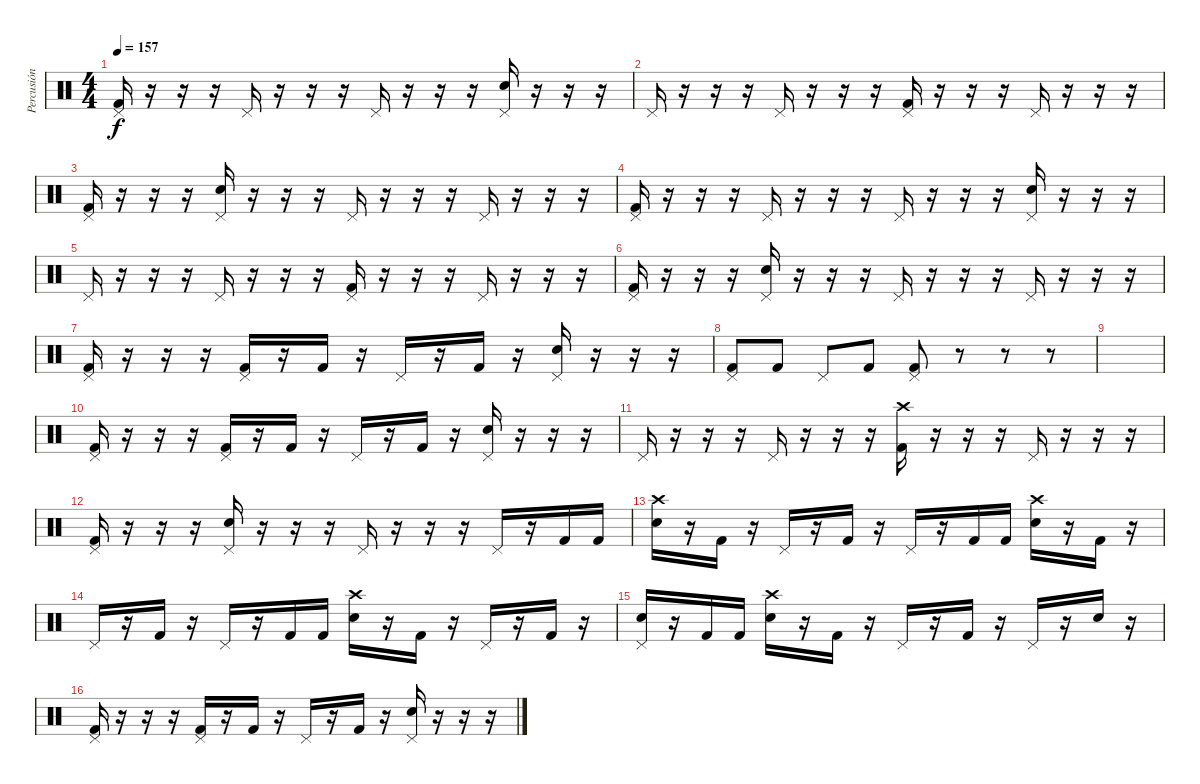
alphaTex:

\track ("Percusión" "Percusión") {instrument percussion}
\staff {score}
\articulation defaults
\ts (4 4)
\tempo 157
\clef neutral
\ks c
("Pedal Hi-Hat (hit)" "Kick (hit) 2").16{dy f} r.16 r.16 r.16 "Pedal Hi-Hat (hit)".16 r.16 r.16 r.16 "Pedal Hi-Hat (hit)".16 r.16 r.16 r.16 ("Pedal Hi-Hat (hit)" "Electric Snare (hit)").16 r.16 r.16 r.16 |
"Pedal Hi-Hat (hit)".16 r.16 r.16 r.16 "Pedal Hi-Hat (hit)".16 r.16 r.16 r.16 ("Pedal Hi-Hat (hit)" "Kick (hit) 2").16 r.16 r.16 r.16 "Pedal Hi-Hat (hit)".16 r.16 r.16 r.16 |
("Pedal Hi-Hat (hit)" "Kick (hit) 2").16 r.16 r.16 r.16 ("Pedal Hi-Hat (hit)" "Electric Snare (hit)").16 r.16 r.16 r.16 "Pedal Hi-Hat (hit)".16 r.16 r.16 r.16 "Pedal Hi-Hat (hit)".16 r.16 r.16 r.16 |
("Pedal Hi-Hat (hit)" "Kick (hit) 2").16 r.16 r.16 r.16 "Pedal Hi-Hat (hit)".16 r.16 r.16 r.16 "Pedal Hi-Hat (hit)".16 r.16 r.16 r.16 ("Pedal Hi-Hat (hit)" "Electric Snare (hit)").16 r.16 r.16 r.16 |
"Pedal Hi-Hat (hit)".16 r.16 r.16 r.16 "Pedal Hi-Hat (hit)".16 r.16 r.16 r.16 ("Pedal Hi-Hat (hit)" "Kick (hit) 2").16 r.16 r.16 r.16 "Pedal Hi-Hat (hit)".16 r.16 r.16 r.16 |
("Pedal Hi-Hat (hit)" "Kick (hit) 2").16 r.16 r.16 r.16 ("Pedal Hi-Hat (hit)" "Electric Snare (hit)").16 r.16 r.16 r.16 "Pedal Hi-Hat (hit)".16 r.16 r.16 r.16 "Pedal Hi-Hat (hit)".16 r.16 r.16 r.16 |
("Pedal Hi-Hat (hit)" "Kick (hit) 2").16 r.16 r.16 r.16 ("Pedal Hi-Hat (hit)" "Kick (hit) 2").16 r.16 "Kick (hit) 2".16 r.16 "Pedal Hi-Hat (hit)".16 r.16 "Kick (hit) 2".16 r.16 ("Pedal Hi-Hat (hit)" "Electric Snare (hit)").16 r.16 r.16 r.16 |
("Pedal Hi-Hat (hit)" "Kick (hit) 2").8 "Kick (hit) 2".8 "Pedal Hi-Hat (hit)".8 "Kick (hit) 2".8 ("Pedal Hi-Hat (hit)" "Kick (hit) 2").8 r.8 r.8 r.8 |
|
("Pedal Hi-Hat (hit)" "Kick (hit) 2").16 r.16 r.16 r.16 ("Pedal Hi-Hat (hit)" "Kick (hit) 2").16 r.16 "Kick (hit) 2".16 r.16 "Pedal Hi-Hat (hit)".16 r.16 "Kick (hit) 2".16 r.16 ("Pedal Hi-Hat (hit)" "Electric Snare (hit)").16 r.16 r.16 r.16 |
"Pedal Hi-Hat (hit)".16 r.16 r.16 r.16 "Pedal Hi-Hat (hit)".16 r.16 r.16 r.16 ("Crash high (hit)" "Kick (hit) 2").16 r.16 r.16 r.16 "Pedal Hi-Hat (hit)".16 r.16 r.16 r.16 |
("Pedal Hi-Hat (hit)" "Kick (hit) 2").16 r.16 r.16 r.16 ("Pedal Hi-Hat (hit)" "Electric Snare (hit)").16 r.16 r.16 r.16 "Pedal Hi-Hat (hit)".16 r.16 r.16 r.16 "Pedal Hi-Hat (hit)".16 r.16 "Kick (hit) 2".16 "Kick (hit) 2".16 |
("Crash high (hit)" "Electric Snare (hit)").16 r.16 "Kick (hit) 2".16 r.16 "Pedal Hi-Hat (hit)".16 r.16 "Kick (hit) 2".16 r.16 "Pedal Hi-Hat (hit)".16 r.16 "Kick (hit) 2".16 "Kick (hit) 2".16 ("Crash high (hit)" "Electric Snare (hit)").16 r.16 "Kick (hit) 2".16 r.16 |
"Pedal Hi-Hat (hit)".16 r.16 "Kick (hit) 2".16 r.16 "Pedal Hi-Hat (hit)".16 r.16 "Kick (hit) 2".16 "Kick (hit) 2".16 ("Crash high (hit)" "Electric Snare (hit)").16 r.16 "Kick (hit) 2".16 r.16 "Pedal Hi-Hat (hit)".16 r.16 "Kick (hit) 2".16 r.16 |
("Pedal Hi-Hat (hit)" "Snare (hit)").16 r.16 "Kick (hit) 2".16 "Kick (hit) 2".16 ("Crash high (hit)" "Electric Snare (hit)").16 r.16 "Kick (hit) 2".16 r.16 "Pedal Hi-Hat (hit)".16 r.16 "Kick (hit) 2".16 r.16 "Pedal Hi-Hat (hit)".16 r.16 "Electric Snare (hit)".16 r.16 |
("Pedal Hi-Hat (hit)" "Kick (hit) 2").16 r.16 r.16 r.16 ("Pedal Hi-Hat (hit)" "Kick (hit) 2").16 r.16 "Kick (hit) 2".16 r.16 "Pedal Hi-Hat (hit)".16 r.16 "Kick (hit) 2".16 r.16 ("Pedal Hi-Hat (hit)" "Electric Snare (hit)").16 r.16 r.16 r.16
